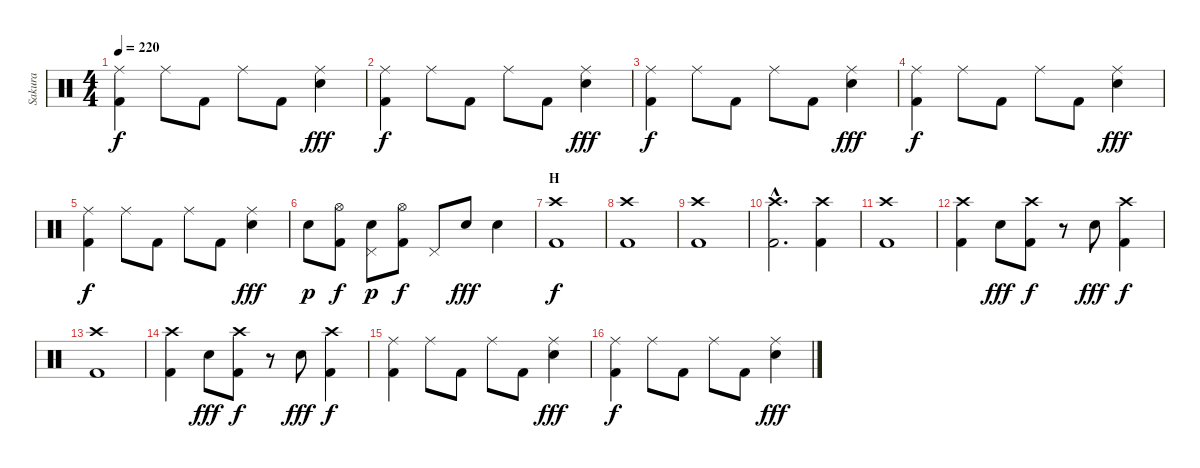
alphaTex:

\track ("Sakura" "Sakura") {instrument percussion}
\staff {score}
\articulation defaults
\ts (4 4)
\tempo 220
\clef neutral
\ks c
("Ride (middle)" "Kick (hit) 2").4{dy f} "Ride (middle)".8 "Kick (hit) 2".8 "Ride (middle)".8 "Kick (hit) 2".8 ("Ride (middle)" "Electric Snare (hit)").4{dy fff} |
("Ride (middle)" "Kick (hit) 2").4{dy f} "Ride (middle)".8 "Kick (hit) 2".8 "Ride (middle)".8 "Kick (hit) 2".8 ("Ride (middle)" "Electric Snare (hit)").4{dy fff} |
("Ride (middle)" "Kick (hit) 2").4{dy f} "Ride (middle)".8 "Kick (hit) 2".8 "Ride (middle)".8 "Kick (hit) 2".8 ("Ride (middle)" "Electric Snare (hit)").4{dy fff} |
("Ride (middle)" "Kick (hit) 2").4{dy f} "Ride (middle)".8 "Kick (hit) 2".8 "Ride (middle)".8 "Kick (hit) 2".8 ("Ride (middle)" "Electric Snare (hit)").4{dy fff} |
("Ride (middle)" "Kick (hit) 2").4{dy f} "Ride (middle)".8 "Kick (hit) 2".8 "Ride (middle)".8 "Kick (hit) 2".8 ("Ride (middle)" "Electric Snare (hit)").4{dy fff} |
"Electric Snare (hit)".8{dy p} ("Hi-Hat (open)" "Kick (hit) 2").8{dy f} ("Pedal Hi-Hat (hit)" "Electric Snare (hit)").8{dy p} ("Hi-Hat (open)" "Kick (hit) 2").8{dy f} "Pedal Hi-Hat (hit)".8 "Electric Snare (hit)".8{dy fff} "Electric Snare (hit)".4 |
\section ("" "H")
("Crash high (hit)" "Kick (hit) 2").1{dy f} |
("Crash high (hit)" "Kick (hit) 2").1 |
("Crash high (hit)" "Kick (hit) 2").1 |
("Crash high (hit)"{hac} "Kick (hit) 2"{hac}).2{d} ("Crash high (hit)" "Kick (hit) 2").4 |
("Crash high (hit)" "Kick (hit) 2").1 |
("Crash high (hit)" "Kick (hit) 2").4 "Electric Snare (hit)".8{dy fff} ("Crash high (hit)" "Kick (hit) 2").8{dy f} r.8 "Electric Snare (hit)".8{dy fff} ("Crash high (hit)" "Kick (hit) 2").4{dy f} |
("Crash high (hit)" "Kick (hit) 2").1 |
("Crash high (hit)" "Kick (hit) 2").4 "Electric Snare (hit)".8{dy fff} ("Crash high (hit)" "Kick (hit) 2").8{dy f} r.8 "Electric Snare (hit)".8{dy fff} ("Crash high (hit)" "Kick (hit) 2").4{dy f} |
("Ride (middle)" "Kick (hit) 2").4 "Ride (middle)".8 "Kick (hit) 2".8 "Ride (middle)".8 "Kick (hit) 2".8 ("Ride (middle)" "Electric Snare (hit)").4{dy fff} |
("Ride (middle)" "Kick (hit) 2").4{dy f} "Ride (middle)".8 "Kick (hit) 2".8 "Ride (middle)".8 "Kick (hit) 2".8 ("Ride (middle)" "Electric Snare (hit)").4{dy fff}
